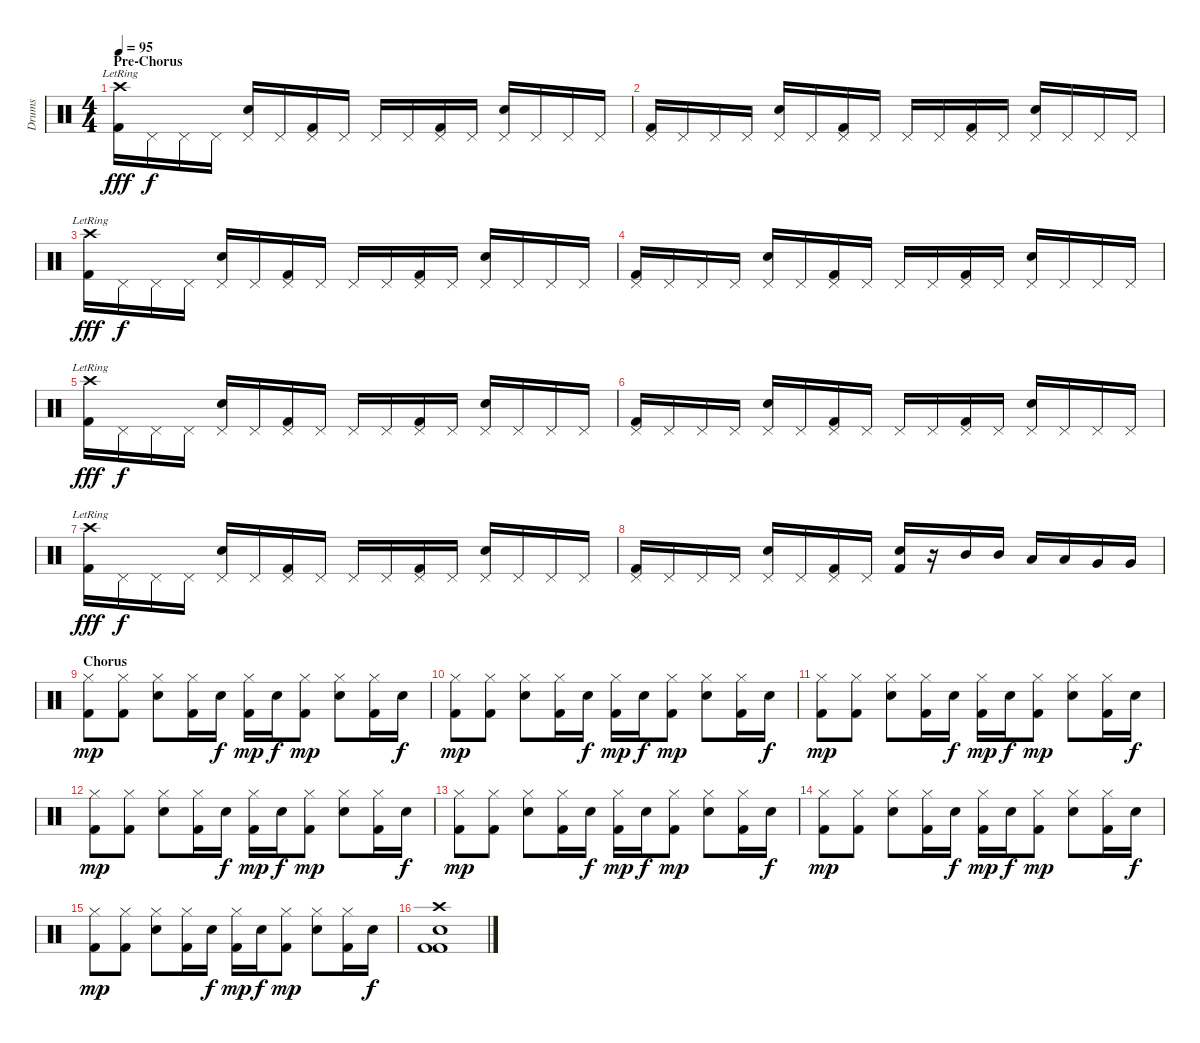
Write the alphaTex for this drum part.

\track ("Drums" "Drums") {instrument percussion}
\staff {score}
\articulation defaults
\ts (4 4)
\section ("" "Pre-Chorus")
\tempo 95
\clef neutral
\ks c
("Crash high (hit)"{lr} "Kick (hit) 2").16{dy fff} "Pedal Hi-Hat (hit)".16{dy f} "Pedal Hi-Hat (hit)".16 "Pedal Hi-Hat (hit)".16 ("Pedal Hi-Hat (hit)" "Electric Snare (hit)").16 "Pedal Hi-Hat (hit)".16 ("Pedal Hi-Hat (hit)" "Kick (hit) 2").16 "Pedal Hi-Hat (hit)".16 "Pedal Hi-Hat (hit)".16 "Pedal Hi-Hat (hit)".16 ("Pedal Hi-Hat (hit)" "Kick (hit) 2").16 "Pedal Hi-Hat (hit)".16 ("Pedal Hi-Hat (hit)" "Electric Snare (hit)").16 "Pedal Hi-Hat (hit)".16 "Pedal Hi-Hat (hit)".16 "Pedal Hi-Hat (hit)".16 |
("Pedal Hi-Hat (hit)" "Kick (hit) 2").16 "Pedal Hi-Hat (hit)".16 "Pedal Hi-Hat (hit)".16 "Pedal Hi-Hat (hit)".16 ("Pedal Hi-Hat (hit)" "Electric Snare (hit)").16 "Pedal Hi-Hat (hit)".16 ("Pedal Hi-Hat (hit)" "Kick (hit) 2").16 "Pedal Hi-Hat (hit)".16 "Pedal Hi-Hat (hit)".16 "Pedal Hi-Hat (hit)".16 ("Pedal Hi-Hat (hit)" "Kick (hit) 2").16 "Pedal Hi-Hat (hit)".16 ("Pedal Hi-Hat (hit)" "Electric Snare (hit)").16 "Pedal Hi-Hat (hit)".16 "Pedal Hi-Hat (hit)".16 "Pedal Hi-Hat (hit)".16 |
("Crash high (hit)"{lr} "Kick (hit) 2").16{dy fff} "Pedal Hi-Hat (hit)".16{dy f} "Pedal Hi-Hat (hit)".16 "Pedal Hi-Hat (hit)".16 ("Pedal Hi-Hat (hit)" "Electric Snare (hit)").16 "Pedal Hi-Hat (hit)".16 ("Pedal Hi-Hat (hit)" "Kick (hit) 2").16 "Pedal Hi-Hat (hit)".16 "Pedal Hi-Hat (hit)".16 "Pedal Hi-Hat (hit)".16 ("Pedal Hi-Hat (hit)" "Kick (hit) 2").16 "Pedal Hi-Hat (hit)".16 ("Pedal Hi-Hat (hit)" "Electric Snare (hit)").16 "Pedal Hi-Hat (hit)".16 "Pedal Hi-Hat (hit)".16 "Pedal Hi-Hat (hit)".16 |
("Pedal Hi-Hat (hit)" "Kick (hit) 2").16 "Pedal Hi-Hat (hit)".16 "Pedal Hi-Hat (hit)".16 "Pedal Hi-Hat (hit)".16 ("Pedal Hi-Hat (hit)" "Electric Snare (hit)").16 "Pedal Hi-Hat (hit)".16 ("Pedal Hi-Hat (hit)" "Kick (hit) 2").16 "Pedal Hi-Hat (hit)".16 "Pedal Hi-Hat (hit)".16 "Pedal Hi-Hat (hit)".16 ("Pedal Hi-Hat (hit)" "Kick (hit) 2").16 "Pedal Hi-Hat (hit)".16 ("Pedal Hi-Hat (hit)" "Electric Snare (hit)").16 "Pedal Hi-Hat (hit)".16 "Pedal Hi-Hat (hit)".16 "Pedal Hi-Hat (hit)".16 |
("Crash high (hit)"{lr} "Kick (hit) 2").16{dy fff} "Pedal Hi-Hat (hit)".16{dy f} "Pedal Hi-Hat (hit)".16 "Pedal Hi-Hat (hit)".16 ("Pedal Hi-Hat (hit)" "Electric Snare (hit)").16 "Pedal Hi-Hat (hit)".16 ("Pedal Hi-Hat (hit)" "Kick (hit) 2").16 "Pedal Hi-Hat (hit)".16 "Pedal Hi-Hat (hit)".16 "Pedal Hi-Hat (hit)".16 ("Pedal Hi-Hat (hit)" "Kick (hit) 2").16 "Pedal Hi-Hat (hit)".16 ("Pedal Hi-Hat (hit)" "Electric Snare (hit)").16 "Pedal Hi-Hat (hit)".16 "Pedal Hi-Hat (hit)".16 "Pedal Hi-Hat (hit)".16 |
("Pedal Hi-Hat (hit)" "Kick (hit) 2").16 "Pedal Hi-Hat (hit)".16 "Pedal Hi-Hat (hit)".16 "Pedal Hi-Hat (hit)".16 ("Pedal Hi-Hat (hit)" "Electric Snare (hit)").16 "Pedal Hi-Hat (hit)".16 ("Pedal Hi-Hat (hit)" "Kick (hit) 2").16 "Pedal Hi-Hat (hit)".16 "Pedal Hi-Hat (hit)".16 "Pedal Hi-Hat (hit)".16 ("Pedal Hi-Hat (hit)" "Kick (hit) 2").16 "Pedal Hi-Hat (hit)".16 ("Pedal Hi-Hat (hit)" "Electric Snare (hit)").16 "Pedal Hi-Hat (hit)".16 "Pedal Hi-Hat (hit)".16 "Pedal Hi-Hat (hit)".16 |
("Crash high (hit)"{lr} "Kick (hit) 2").16{dy fff} "Pedal Hi-Hat (hit)".16{dy f} "Pedal Hi-Hat (hit)".16 "Pedal Hi-Hat (hit)".16 ("Pedal Hi-Hat (hit)" "Electric Snare (hit)").16 "Pedal Hi-Hat (hit)".16 ("Pedal Hi-Hat (hit)" "Kick (hit) 2").16 "Pedal Hi-Hat (hit)".16 "Pedal Hi-Hat (hit)".16 "Pedal Hi-Hat (hit)".16 ("Pedal Hi-Hat (hit)" "Kick (hit) 2").16 "Pedal Hi-Hat (hit)".16 ("Pedal Hi-Hat (hit)" "Electric Snare (hit)").16 "Pedal Hi-Hat (hit)".16 "Pedal Hi-Hat (hit)".16 "Pedal Hi-Hat (hit)".16 |
("Pedal Hi-Hat (hit)" "Kick (hit) 2").16 "Pedal Hi-Hat (hit)".16 "Pedal Hi-Hat (hit)".16 "Pedal Hi-Hat (hit)".16 ("Pedal Hi-Hat (hit)" "Electric Snare (hit)").16 "Pedal Hi-Hat (hit)".16 ("Pedal Hi-Hat (hit)" "Kick (hit) 2").16 "Pedal Hi-Hat (hit)".16 ("Electric Snare (hit)" "Kick (hit) 2").16 r.16 "Mid Tom (hit)".16 "Mid Tom (hit)".16 "Low Tom (hit)".16 "Low Tom (hit)".16 "Very Low Tom (hit)".16 "Very Low Tom (hit)".16 |
\section ("" "Chorus")
("Hi-Hat (closed)" "Kick (hit) 2").8{dy mp} ("Hi-Hat (closed)" "Kick (hit) 2").8 ("Hi-Hat (closed)" "Electric Snare (hit)").8 ("Hi-Hat (closed)" "Kick (hit) 2").16 "Electric Snare (hit)".16{dy f} ("Hi-Hat (closed)" "Kick (hit) 2").16{dy mp} "Electric Snare (hit)".16{dy f} ("Hi-Hat (closed)" "Kick (hit) 2").8{dy mp} ("Hi-Hat (closed)" "Electric Snare (hit)").8 ("Hi-Hat (closed)" "Kick (hit) 2").16 "Electric Snare (hit)".16{dy f} |
("Hi-Hat (closed)" "Kick (hit) 2").8{dy mp} ("Hi-Hat (closed)" "Kick (hit) 2").8 ("Hi-Hat (closed)" "Electric Snare (hit)").8 ("Hi-Hat (closed)" "Kick (hit) 2").16 "Electric Snare (hit)".16{dy f} ("Hi-Hat (closed)" "Kick (hit) 2").16{dy mp} "Electric Snare (hit)".16{dy f} ("Hi-Hat (closed)" "Kick (hit) 2").8{dy mp} ("Hi-Hat (closed)" "Electric Snare (hit)").8 ("Hi-Hat (closed)" "Kick (hit) 2").16 "Electric Snare (hit)".16{dy f} |
("Hi-Hat (closed)" "Kick (hit) 2").8{dy mp} ("Hi-Hat (closed)" "Kick (hit) 2").8 ("Hi-Hat (closed)" "Electric Snare (hit)").8 ("Hi-Hat (closed)" "Kick (hit) 2").16 "Electric Snare (hit)".16{dy f} ("Hi-Hat (closed)" "Kick (hit) 2").16{dy mp} "Electric Snare (hit)".16{dy f} ("Hi-Hat (closed)" "Kick (hit) 2").8{dy mp} ("Hi-Hat (closed)" "Electric Snare (hit)").8 ("Hi-Hat (closed)" "Kick (hit) 2").16 "Electric Snare (hit)".16{dy f} |
("Hi-Hat (closed)" "Kick (hit) 2").8{dy mp} ("Hi-Hat (closed)" "Kick (hit) 2").8 ("Hi-Hat (closed)" "Electric Snare (hit)").8 ("Hi-Hat (closed)" "Kick (hit) 2").16 "Electric Snare (hit)".16{dy f} ("Hi-Hat (closed)" "Kick (hit) 2").16{dy mp} "Electric Snare (hit)".16{dy f} ("Hi-Hat (closed)" "Kick (hit) 2").8{dy mp} ("Hi-Hat (closed)" "Electric Snare (hit)").8 ("Hi-Hat (closed)" "Kick (hit) 2").16 "Electric Snare (hit)".16{dy f} |
("Hi-Hat (closed)" "Kick (hit) 2").8{dy mp} ("Hi-Hat (closed)" "Kick (hit) 2").8 ("Hi-Hat (closed)" "Electric Snare (hit)").8 ("Hi-Hat (closed)" "Kick (hit) 2").16 "Electric Snare (hit)".16{dy f} ("Hi-Hat (closed)" "Kick (hit) 2").16{dy mp} "Electric Snare (hit)".16{dy f} ("Hi-Hat (closed)" "Kick (hit) 2").8{dy mp} ("Hi-Hat (closed)" "Electric Snare (hit)").8 ("Hi-Hat (closed)" "Kick (hit) 2").16 "Electric Snare (hit)".16{dy f} |
("Hi-Hat (closed)" "Kick (hit) 2").8{dy mp} ("Hi-Hat (closed)" "Kick (hit) 2").8 ("Hi-Hat (closed)" "Electric Snare (hit)").8 ("Hi-Hat (closed)" "Kick (hit) 2").16 "Electric Snare (hit)".16{dy f} ("Hi-Hat (closed)" "Kick (hit) 2").16{dy mp} "Electric Snare (hit)".16{dy f} ("Hi-Hat (closed)" "Kick (hit) 2").8{dy mp} ("Hi-Hat (closed)" "Electric Snare (hit)").8 ("Hi-Hat (closed)" "Kick (hit) 2").16 "Electric Snare (hit)".16{dy f} |
("Hi-Hat (closed)" "Kick (hit) 2").8{dy mp} ("Hi-Hat (closed)" "Kick (hit) 2").8 ("Hi-Hat (closed)" "Electric Snare (hit)").8 ("Hi-Hat (closed)" "Kick (hit) 2").16 "Electric Snare (hit)".16{dy f} ("Hi-Hat (closed)" "Kick (hit) 2").16{dy mp} "Electric Snare (hit)".16{dy f} ("Hi-Hat (closed)" "Kick (hit) 2").8{dy mp} ("Hi-Hat (closed)" "Electric Snare (hit)").8 ("Hi-Hat (closed)" "Kick (hit) 2").16 "Electric Snare (hit)".16{dy f} |
("Crash high (hit)" "Electric Snare (hit)" "Kick (hit) 2" "Kick (hit) 2").1
